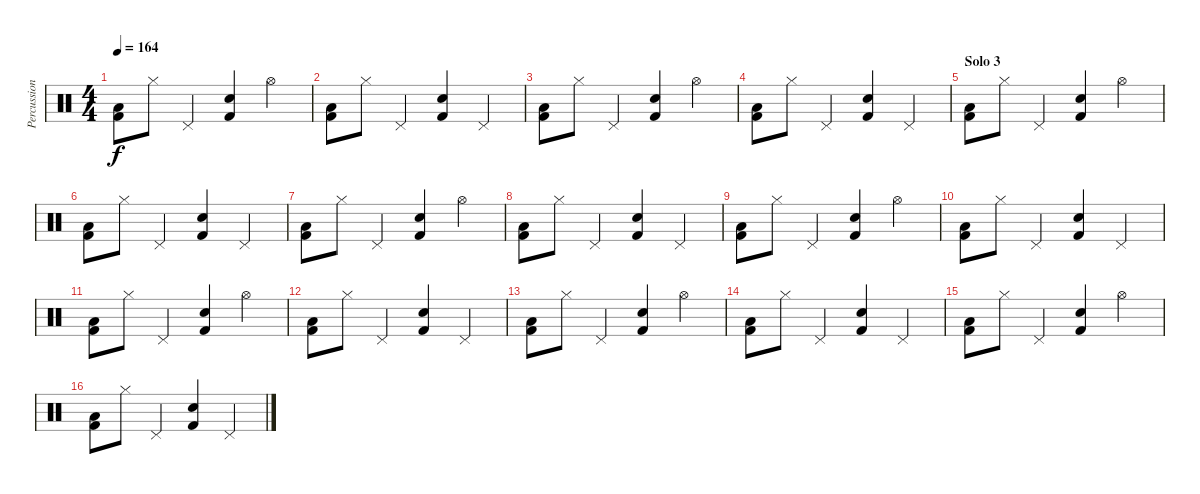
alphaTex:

\track ("Percussion" "Percussion") {instrument percussion}
\staff {score}
\articulation defaults
\ts (4 4)
\tempo 164
\clef neutral
\ks c
("Low Tom (hit)" "Kick (hit) 2").8{dy f} "Hi-Hat (closed)".8 "Pedal Hi-Hat (hit)".4 ("Snare (hit) 2" "Kick (hit) 2").4 "Hi-Hat (open)".4 |
("Low Tom (hit)" "Kick (hit) 2").8 "Hi-Hat (closed)".8 "Pedal Hi-Hat (hit)".4 ("Snare (hit) 2" "Kick (hit) 2").4 "Pedal Hi-Hat (hit)".4 |
("Low Tom (hit)" "Kick (hit) 2").8 "Hi-Hat (closed)".8 "Pedal Hi-Hat (hit)".4 ("Snare (hit) 2" "Kick (hit) 2").4 "Hi-Hat (open)".4 |
("Low Tom (hit)" "Kick (hit) 2").8 "Hi-Hat (closed)".8 "Pedal Hi-Hat (hit)".4 ("Snare (hit) 2" "Kick (hit) 2").4 "Pedal Hi-Hat (hit)".4 |
\section ("" "Solo 3")
("Low Tom (hit)" "Kick (hit) 2").8 "Hi-Hat (closed)".8 "Pedal Hi-Hat (hit)".4 ("Snare (hit) 2" "Kick (hit) 2").4 "Hi-Hat (open)".4 |
("Low Tom (hit)" "Kick (hit) 2").8 "Hi-Hat (closed)".8 "Pedal Hi-Hat (hit)".4 ("Snare (hit) 2" "Kick (hit) 2").4 "Pedal Hi-Hat (hit)".4 |
("Low Tom (hit)" "Kick (hit) 2").8 "Hi-Hat (closed)".8 "Pedal Hi-Hat (hit)".4 ("Snare (hit) 2" "Kick (hit) 2").4 "Hi-Hat (open)".4 |
("Low Tom (hit)" "Kick (hit) 2").8 "Hi-Hat (closed)".8 "Pedal Hi-Hat (hit)".4 ("Snare (hit) 2" "Kick (hit) 2").4 "Pedal Hi-Hat (hit)".4 |
("Low Tom (hit)" "Kick (hit) 2").8 "Hi-Hat (closed)".8 "Pedal Hi-Hat (hit)".4 ("Snare (hit) 2" "Kick (hit) 2").4 "Hi-Hat (open)".4 |
("Low Tom (hit)" "Kick (hit) 2").8 "Hi-Hat (closed)".8 "Pedal Hi-Hat (hit)".4 ("Snare (hit) 2" "Kick (hit) 2").4 "Pedal Hi-Hat (hit)".4 |
("Low Tom (hit)" "Kick (hit) 2").8 "Hi-Hat (closed)".8 "Pedal Hi-Hat (hit)".4 ("Snare (hit) 2" "Kick (hit) 2").4 "Hi-Hat (open)".4 |
("Low Tom (hit)" "Kick (hit) 2").8 "Hi-Hat (closed)".8 "Pedal Hi-Hat (hit)".4 ("Snare (hit) 2" "Kick (hit) 2").4 "Pedal Hi-Hat (hit)".4 |
("Low Tom (hit)" "Kick (hit) 2").8 "Hi-Hat (closed)".8 "Pedal Hi-Hat (hit)".4 ("Snare (hit) 2" "Kick (hit) 2").4 "Hi-Hat (open)".4 |
("Low Tom (hit)" "Kick (hit) 2").8 "Hi-Hat (closed)".8 "Pedal Hi-Hat (hit)".4 ("Snare (hit) 2" "Kick (hit) 2").4 "Pedal Hi-Hat (hit)".4 |
("Low Tom (hit)" "Kick (hit) 2").8 "Hi-Hat (closed)".8 "Pedal Hi-Hat (hit)".4 ("Snare (hit) 2" "Kick (hit) 2").4 "Hi-Hat (open)".4 |
("Low Tom (hit)" "Kick (hit) 2").8 "Hi-Hat (closed)".8 "Pedal Hi-Hat (hit)".4 ("Snare (hit) 2" "Kick (hit) 2").4 "Pedal Hi-Hat (hit)".4
